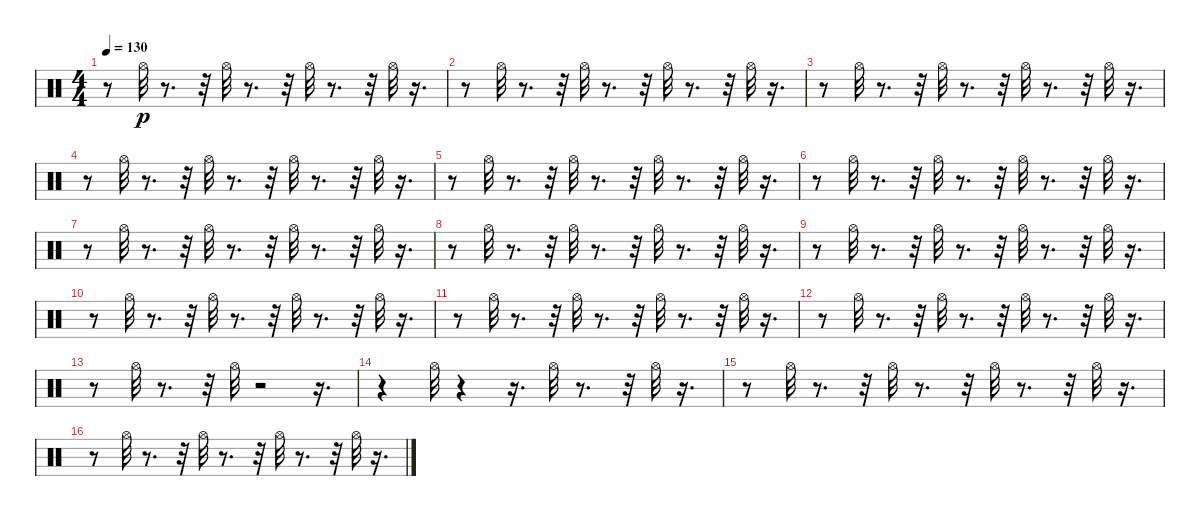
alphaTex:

\track "" {instrument percussion}
\staff {score}
\articulation defaults
\ts (4 4)
\tempo 130
\clef neutral
\ks c
r.8{dy p} "Hi-Hat (open)".32 r.8{d} r.32 "Hi-Hat (open)".32 r.8{d} r.32 "Hi-Hat (open)".32 r.8{d} r.32 "Hi-Hat (open)".32 r.16{d} |
r.8 "Hi-Hat (open)".32 r.8{d} r.32 "Hi-Hat (open)".32 r.8{d} r.32 "Hi-Hat (open)".32 r.8{d} r.32 "Hi-Hat (open)".32 r.16{d} |
r.8 "Hi-Hat (open)".32 r.8{d} r.32 "Hi-Hat (open)".32 r.8{d} r.32 "Hi-Hat (open)".32 r.8{d} r.32 "Hi-Hat (open)".32 r.16{d} |
r.8 "Hi-Hat (open)".32 r.8{d} r.32 "Hi-Hat (open)".32 r.8{d} r.32 "Hi-Hat (open)".32 r.8{d} r.32 "Hi-Hat (open)".32 r.16{d} |
r.8 "Hi-Hat (open)".32 r.8{d} r.32 "Hi-Hat (open)".32 r.8{d} r.32 "Hi-Hat (open)".32 r.8{d} r.32 "Hi-Hat (open)".32 r.16{d} |
r.8 "Hi-Hat (open)".32 r.8{d} r.32 "Hi-Hat (open)".32 r.8{d} r.32 "Hi-Hat (open)".32 r.8{d} r.32 "Hi-Hat (open)".32 r.16{d} |
r.8 "Hi-Hat (open)".32 r.8{d} r.32 "Hi-Hat (open)".32 r.8{d} r.32 "Hi-Hat (open)".32 r.8{d} r.32 "Hi-Hat (open)".32 r.16{d} |
r.8 "Hi-Hat (open)".32 r.8{d} r.32 "Hi-Hat (open)".32 r.8{d} r.32 "Hi-Hat (open)".32 r.8{d} r.32 "Hi-Hat (open)".32 r.16{d} |
r.8 "Hi-Hat (open)".32 r.8{d} r.32 "Hi-Hat (open)".32 r.8{d} r.32 "Hi-Hat (open)".32 r.8{d} r.32 "Hi-Hat (open)".32 r.16{d} |
r.8 "Hi-Hat (open)".32 r.8{d} r.32 "Hi-Hat (open)".32 r.8{d} r.32 "Hi-Hat (open)".32 r.8{d} r.32 "Hi-Hat (open)".32 r.16{d} |
r.8 "Hi-Hat (open)".32 r.8{d} r.32 "Hi-Hat (open)".32 r.8{d} r.32 "Hi-Hat (open)".32 r.8{d} r.32 "Hi-Hat (open)".32 r.16{d} |
r.8 "Hi-Hat (open)".32 r.8{d} r.32 "Hi-Hat (open)".32 r.8{d} r.32 "Hi-Hat (open)".32 r.8{d} r.32 "Hi-Hat (open)".32 r.16{d} |
r.8 "Hi-Hat (open)".32 r.8{d} r.32 "Hi-Hat (open)".32 r.2 r.16{d} |
r.4 "Hi-Hat (open)".32 r.4 r.16{d} "Hi-Hat (open)".32 r.8{d} r.32 "Hi-Hat (open)".32 r.16{d} |
r.8 "Hi-Hat (open)".32 r.8{d} r.32 "Hi-Hat (open)".32 r.8{d} r.32 "Hi-Hat (open)".32 r.8{d} r.32 "Hi-Hat (open)".32 r.16{d} |
r.8 "Hi-Hat (open)".32 r.8{d} r.32 "Hi-Hat (open)".32 r.8{d} r.32 "Hi-Hat (open)".32 r.8{d} r.32 "Hi-Hat (open)".32 r.16{d}
